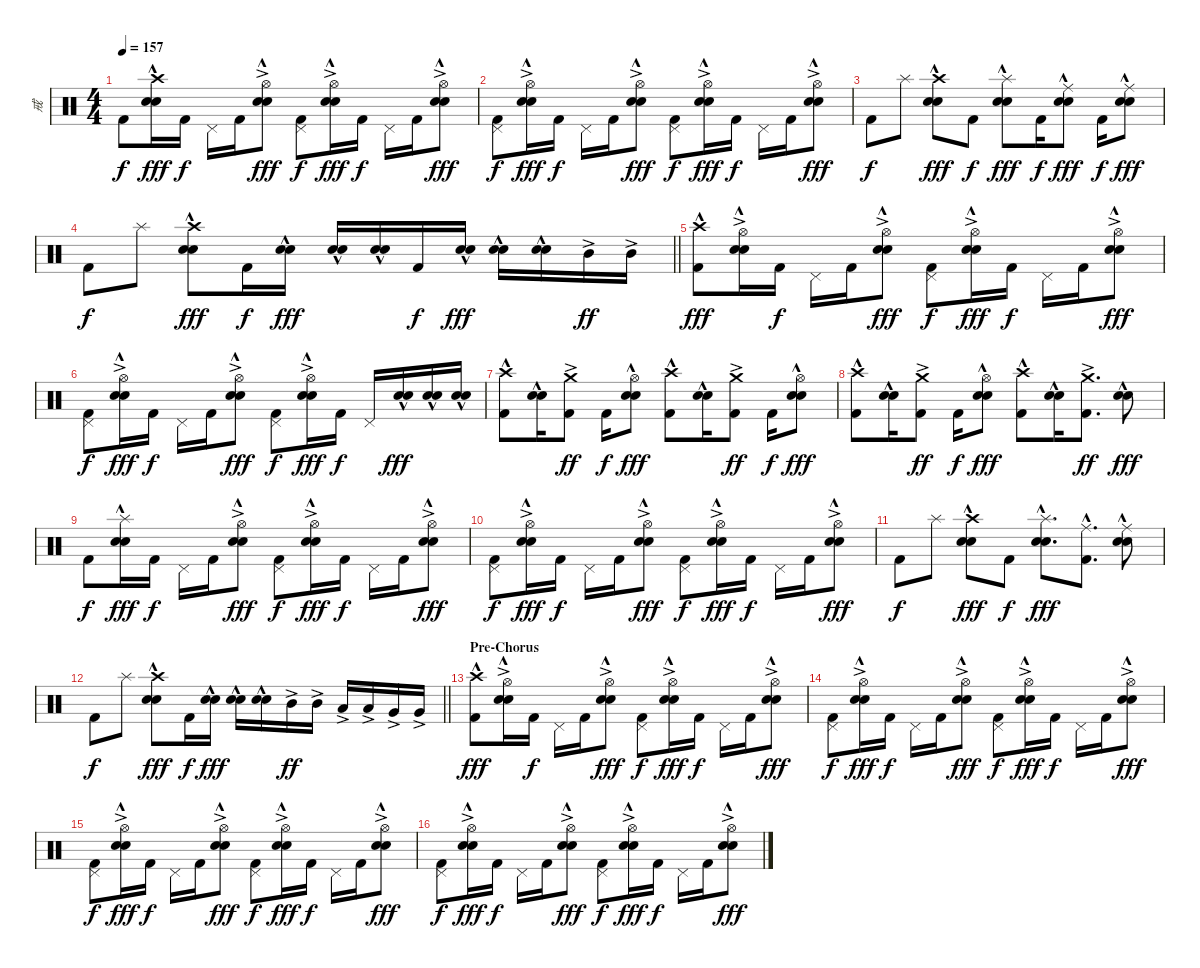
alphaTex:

\track ("戒" "戒") {instrument percussion}
\staff {score}
\articulation defaults
\ts (4 4)
\tempo 157
\clef neutral
\ks c "Kick (hit) 2".8{dy f}
("Crash high (hit)" "Electric Snare (hit)"{hac} "Snare (hit) 2").16{dy fff} "Kick (hit) 2".16{dy f} "Pedal Hi-Hat (hit)".16 "Kick (hit) 2".16 ("Hi-Hat (open)"{ac} "Electric Snare (hit)"{hac} "Snare (hit) 2").8{dy fff} ("Pedal Hi-Hat (hit)" "Kick (hit) 2").8{dy f} ("Hi-Hat (open)"{ac} "Electric Snare (hit)"{hac} "Snare (hit) 2").16{dy fff} "Kick (hit) 2".16{dy f} "Pedal Hi-Hat (hit)".16 "Kick (hit) 2".16 ("Hi-Hat (open)"{ac} "Electric Snare (hit)"{hac} "Snare (hit) 2").8{dy fff} |
("Pedal Hi-Hat (hit)" "Kick (hit) 2").8{dy f} ("Hi-Hat (open)"{ac} "Electric Snare (hit)"{hac} "Snare (hit) 2").16{dy fff} "Kick (hit) 2".16{dy f} "Pedal Hi-Hat (hit)".16 "Kick (hit) 2".16 ("Hi-Hat (open)"{ac} "Electric Snare (hit)"{hac} "Snare (hit) 2").8{dy fff} ("Pedal Hi-Hat (hit)" "Kick (hit) 2").8{dy f} ("Hi-Hat (open)"{ac} "Electric Snare (hit)"{hac} "Snare (hit) 2").16{dy fff} "Kick (hit) 2".16{dy f} "Pedal Hi-Hat (hit)".16 "Kick (hit) 2".16 ("Hi-Hat (open)"{ac} "Electric Snare (hit)"{hac} "Snare (hit) 2").8{dy fff} |
"Kick (hit) 2".8{dy f} "Splash (hit)".8 ("Crash high (hit)"{hac} "Electric Snare (hit)"{hac} "Snare (hit) 2").8{dy fff} "Kick (hit) 2".8{dy f} ("Splash (hit)"{hac} "Electric Snare (hit)"{hac} "Snare (hit) 2").8{dy fff} "Kick (hit) 2".16{dy f} ("Ride (middle)"{hac} "Electric Snare (hit)"{hac} "Snare (hit) 2").8{dy fff} "Kick (hit) 2".16{dy f} ("Ride (middle)" "Electric Snare (hit)"{hac} "Snare (hit) 2").8{dy fff} |
\barLineRight lightlight "Kick (hit) 2".8{dy f} "Splash (hit)".8
("Crash high (hit)"{hac} "Electric Snare (hit)"{hac} "Snare (hit) 2").8{dy fff} "Kick (hit) 2".16{dy f} ("Electric Snare (hit)"{hac} "Snare (hit) 2").16{dy fff} ("Electric Snare (hit)"{hac} "Snare (hit) 2").16 ("Electric Snare (hit)"{hac} "Snare (hit) 2").16 "Kick (hit) 2".16{dy f} ("Electric Snare (hit)"{hac} "Snare (hit) 2").16{dy fff} ("Electric Snare (hit)"{hac} "Snare (hit) 2").16 ("Electric Snare (hit)"{hac} "Snare (hit) 2").16 "Mid Tom (hit)"{ac}.16{dy ff} "Mid Tom (hit)"{ac}.16 |
\section ("" "")
("Crash high (hit)"{hac} "Kick (hit) 2").8{dy fff} ("Hi-Hat (open)"{ac} "Electric Snare (hit)"{hac} "Snare (hit) 2").16 "Kick (hit) 2".16{dy f} "Pedal Hi-Hat (hit)".16 "Kick (hit) 2".16 ("Hi-Hat (open)"{ac} "Electric Snare (hit)"{hac} "Snare (hit) 2").8{dy fff} ("Pedal Hi-Hat (hit)" "Kick (hit) 2").8{dy f} ("Hi-Hat (open)"{ac} "Electric Snare (hit)"{hac} "Snare (hit) 2").16{dy fff} "Kick (hit) 2".16{dy f} "Pedal Hi-Hat (hit)".16 "Kick (hit) 2".16 ("Hi-Hat (open)"{ac} "Electric Snare (hit)"{hac} "Snare (hit) 2").8{dy fff} |
("Pedal Hi-Hat (hit)" "Kick (hit) 2").8{dy f} ("Hi-Hat (open)"{ac} "Electric Snare (hit)"{hac} "Snare (hit) 2").16{dy fff} "Kick (hit) 2".16{dy f} "Pedal Hi-Hat (hit)".16 "Kick (hit) 2".16 ("Hi-Hat (open)"{ac} "Electric Snare (hit)"{hac} "Snare (hit) 2").8{dy fff} ("Pedal Hi-Hat (hit)" "Kick (hit) 2").8{dy f} ("Hi-Hat (open)"{ac} "Electric Snare (hit)"{hac} "Snare (hit) 2").16{dy fff} "Kick (hit) 2".16{dy f} "Pedal Hi-Hat (hit)".16 ("Electric Snare (hit)"{hac} "Snare (hit) 2").16{dy fff} ("Electric Snare (hit)"{hac} "Snare (hit) 2").16 ("Electric Snare (hit)"{hac} "Snare (hit) 2").16 |
("Crash high (hit)"{hac} "Kick (hit) 2").8 ("Electric Snare (hit)"{hac} "Snare (hit) 2").16 ("Crash medium (hit)"{ac} "Kick (hit) 2").8{dy ff} "Kick (hit) 2".16{dy f} ("Hi-Hat (open)" "Electric Snare (hit)"{hac} "Snare (hit) 2").8{dy fff} ("Crash high (hit)"{hac} "Kick (hit) 2").8 ("Electric Snare (hit)"{hac} "Snare (hit) 2").16 ("Crash medium (hit)"{ac} "Kick (hit) 2").8{dy ff} "Kick (hit) 2".16{dy f} ("Hi-Hat (open)" "Electric Snare (hit)"{hac} "Snare (hit) 2").8{dy fff} |
("Crash high (hit)"{hac} "Kick (hit) 2").8 ("Electric Snare (hit)"{hac} "Snare (hit) 2").16 ("Crash medium (hit)"{ac} "Kick (hit) 2").8{dy ff} "Kick (hit) 2".16{dy f} ("Hi-Hat (open)" "Electric Snare (hit)"{hac} "Snare (hit) 2").8{dy fff} ("Crash high (hit)"{hac} "Kick (hit) 2").8 ("Electric Snare (hit)"{hac} "Snare (hit) 2").16 ("Crash medium (hit)"{ac} "Kick (hit) 2").8{d dy ff} ("Electric Snare (hit)"{hac} "Snare (hit) 2").8{dy fff} |
"Kick (hit) 2".8{dy f} ("Splash (hit)"{hac} "Electric Snare (hit)"{hac} "Snare (hit) 2").16{dy fff} "Kick (hit) 2".16{dy f} "Pedal Hi-Hat (hit)".16 "Kick (hit) 2".16 ("Hi-Hat (open)"{ac} "Electric Snare (hit)"{hac} "Snare (hit) 2").8{dy fff} ("Pedal Hi-Hat (hit)" "Kick (hit) 2").8{dy f} ("Hi-Hat (open)"{ac} "Electric Snare (hit)"{hac} "Snare (hit) 2").16{dy fff} "Kick (hit) 2".16{dy f} "Pedal Hi-Hat (hit)".16 "Kick (hit) 2".16 ("Hi-Hat (open)"{ac} "Electric Snare (hit)"{hac} "Snare (hit) 2").8{dy fff} |
("Pedal Hi-Hat (hit)" "Kick (hit) 2").8{dy f} ("Hi-Hat (open)"{ac} "Electric Snare (hit)"{hac} "Snare (hit) 2").16{dy fff} "Kick (hit) 2".16{dy f} "Pedal Hi-Hat (hit)".16 "Kick (hit) 2".16 ("Hi-Hat (open)"{ac} "Electric Snare (hit)"{hac} "Snare (hit) 2").8{dy fff} ("Pedal Hi-Hat (hit)" "Kick (hit) 2").8{dy f} ("Hi-Hat (open)"{ac} "Electric Snare (hit)"{hac} "Snare (hit) 2").16{dy fff} "Kick (hit) 2".16{dy f} "Pedal Hi-Hat (hit)".16 "Kick (hit) 2".16 ("Hi-Hat (open)"{ac} "Electric Snare (hit)"{hac} "Snare (hit) 2").8{dy fff} |
"Kick (hit) 2".8{dy f} "Splash (hit)".8 ("Crash high (hit)"{hac} "Electric Snare (hit)"{hac} "Snare (hit) 2").8{dy fff} "Kick (hit) 2".8{dy f} ("Splash (hit)"{hac} "Electric Snare (hit)"{hac} "Snare (hit) 2").8{d dy fff} ("Ride (middle)"{hac} "Kick (hit) 2").8{d} ("Ride (middle)" "Electric Snare (hit)"{hac} "Snare (hit) 2").8 |
\barLineRight lightlight "Kick (hit) 2".8{dy f} "Splash (hit)".8
("Crash high (hit)"{hac} "Electric Snare (hit)"{hac} "Snare (hit) 2").8{dy fff} "Kick (hit) 2".16{dy f} ("Electric Snare (hit)"{hac} "Snare (hit) 2").16{dy fff} ("Electric Snare (hit)"{hac} "Snare (hit) 2").16{balance 0} ("Electric Snare (hit)"{hac} "Snare (hit) 2").16 "Mid Tom (hit)"{ac}.16{dy ff} "Mid Tom (hit)"{ac}.16 "Low Tom (hit)"{ac}.16 "Low Tom (hit)"{ac}.16 "Very Low Tom (hit)"{ac}.16 "Very Low Tom (hit)"{ac}.16 |
\section ("" "Pre-Chorus")
("Crash high (hit)"{hac} "Kick (hit) 2").8{dy fff balance 8} ("Hi-Hat (open)"{ac} "Electric Snare (hit)"{hac} "Snare (hit) 2").16 "Kick (hit) 2".16{dy f} "Pedal Hi-Hat (hit)".16 "Kick (hit) 2".16 ("Hi-Hat (open)"{ac} "Electric Snare (hit)"{hac} "Snare (hit) 2").8{dy fff} ("Pedal Hi-Hat (hit)" "Kick (hit) 2").8{dy f} ("Hi-Hat (open)"{ac} "Electric Snare (hit)"{hac} "Snare (hit) 2").16{dy fff} "Kick (hit) 2".16{dy f} "Pedal Hi-Hat (hit)".16 "Kick (hit) 2".16 ("Hi-Hat (open)"{ac} "Electric Snare (hit)"{hac} "Snare (hit) 2").8{dy fff} |
("Pedal Hi-Hat (hit)" "Kick (hit) 2").8{dy f} ("Hi-Hat (open)"{ac} "Electric Snare (hit)"{hac} "Snare (hit) 2").16{dy fff} "Kick (hit) 2".16{dy f} "Pedal Hi-Hat (hit)".16 "Kick (hit) 2".16 ("Hi-Hat (open)"{ac} "Electric Snare (hit)"{hac} "Snare (hit) 2").8{dy fff} ("Pedal Hi-Hat (hit)" "Kick (hit) 2").8{dy f} ("Hi-Hat (open)"{ac} "Electric Snare (hit)"{hac} "Snare (hit) 2").16{dy fff} "Kick (hit) 2".16{dy f} "Pedal Hi-Hat (hit)".16 "Kick (hit) 2".16 ("Hi-Hat (open)"{ac} "Electric Snare (hit)"{hac} "Snare (hit) 2").8{dy fff} |
("Pedal Hi-Hat (hit)" "Kick (hit) 2").8{dy f} ("Hi-Hat (open)"{ac} "Electric Snare (hit)"{hac} "Snare (hit) 2").16{dy fff} "Kick (hit) 2".16{dy f} "Pedal Hi-Hat (hit)".16 "Kick (hit) 2".16 ("Hi-Hat (open)"{ac} "Electric Snare (hit)"{hac} "Snare (hit) 2").8{dy fff} ("Pedal Hi-Hat (hit)" "Kick (hit) 2").8{dy f} ("Hi-Hat (open)"{ac} "Electric Snare (hit)"{hac} "Snare (hit) 2").16{dy fff} "Kick (hit) 2".16{dy f} "Pedal Hi-Hat (hit)".16 "Kick (hit) 2".16 ("Hi-Hat (open)"{ac} "Electric Snare (hit)"{hac} "Snare (hit) 2").8{dy fff} |
("Pedal Hi-Hat (hit)" "Kick (hit) 2").8{dy f} ("Hi-Hat (open)"{ac} "Electric Snare (hit)"{hac} "Snare (hit) 2").16{dy fff} "Kick (hit) 2".16{dy f} "Pedal Hi-Hat (hit)".16 "Kick (hit) 2".16 ("Hi-Hat (open)"{ac} "Electric Snare (hit)"{hac} "Snare (hit) 2").8{dy fff} ("Pedal Hi-Hat (hit)" "Kick (hit) 2").8{dy f} ("Hi-Hat (open)"{ac} "Electric Snare (hit)"{hac} "Snare (hit) 2").16{dy fff} "Kick (hit) 2".16{dy f} "Pedal Hi-Hat (hit)".16 "Kick (hit) 2".16 ("Hi-Hat (open)"{ac} "Electric Snare (hit)"{hac} "Snare (hit) 2").8{dy fff}
